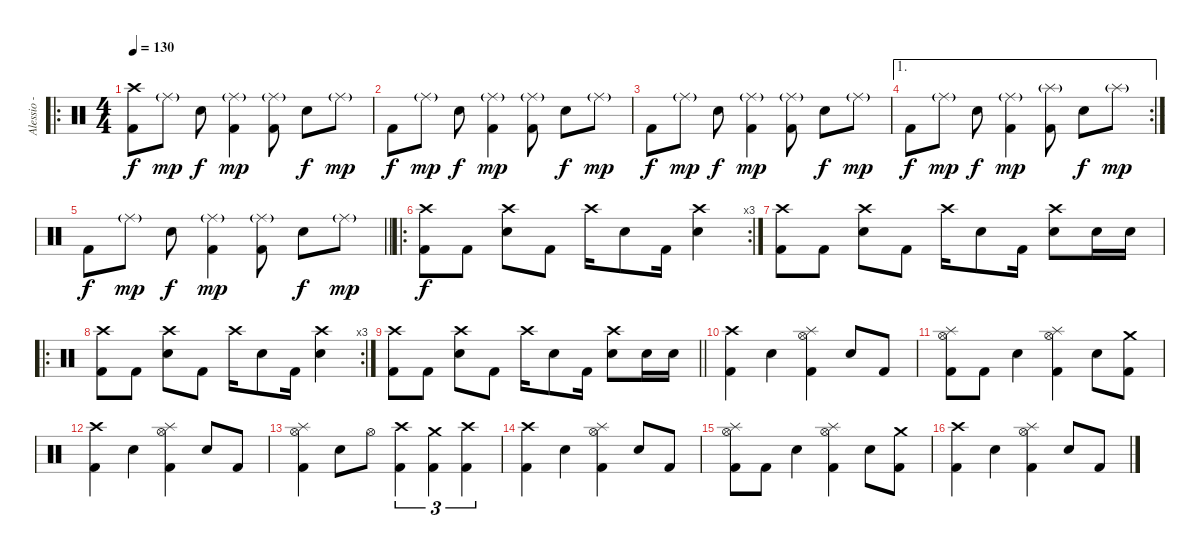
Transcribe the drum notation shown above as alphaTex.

\track ("Alessio - Drums" "Alessio - ") {instrument percussion}
\staff {score}
\articulation defaults
\ro
\ts (4 4)
\section ("" "")
\tempo 130
\clef neutral
\ks c
("Crash high (hit)" "Kick (hit) 2").8{dy f} "Ride (middle)"{g}.8{dy mp} "Electric Snare (hit)".8{dy f} ("Ride (middle)"{g} "Kick (hit) 2").4{dy mp} ("Ride (middle)"{g} "Kick (hit) 2").8 "Electric Snare (hit)".8{dy f} "Ride (middle)"{g}.8{dy mp} |
"Kick (hit) 2".8{dy f} "Ride (middle)"{g}.8{dy mp} "Electric Snare (hit)".8{dy f} ("Ride (middle)"{g} "Kick (hit) 2").4{dy mp} ("Ride (middle)"{g} "Kick (hit) 2").8 "Electric Snare (hit)".8{dy f} "Ride (middle)"{g}.8{dy mp} |
"Kick (hit) 2".8{dy f} "Ride (middle)"{g}.8{dy mp} "Electric Snare (hit)".8{dy f} ("Ride (middle)"{g} "Kick (hit) 2").4{dy mp} ("Ride (middle)"{g} "Kick (hit) 2").8 "Electric Snare (hit)".8{dy f} "Ride (middle)"{g}.8{dy mp} |
\ae 1
\rc 2 "Kick (hit) 2".8{dy f} "Ride (middle)"{g}.8{dy mp} "Electric Snare (hit)".8{dy f}
("Ride (middle)"{g} "Kick (hit) 2").4{dy mp} ("Splash (hit)"{g} "Kick (hit) 2").8 "Electric Snare (hit)".8{dy f} "Splash (hit)"{g}.8{dy mp} |
\barLineRight lightlight "Kick (hit) 2".8{dy f} "Ride (middle)"{g}.8{dy mp} "Electric Snare (hit)".8{dy f}
("Ride (middle)"{g} "Kick (hit) 2").4{dy mp} ("Ride (middle)"{g} "Kick (hit) 2").8 "Electric Snare (hit)".8{dy f} "Ride (middle)"{g}.8{dy mp} |
\ro
\rc 3
\section ("" "")
("Crash high (hit)" "Kick (hit) 2").8{dy f} "Kick (hit) 2".8 ("Crash high (hit)" "Electric Snare (hit)").8 "Kick (hit) 2".8 "Crash high (hit)".16 "Electric Snare (hit)".8 "Kick (hit) 2".16 ("Crash high (hit)" "Electric Snare (hit)").4 |
("Crash high (hit)" "Kick (hit) 2").8 "Kick (hit) 2".8 ("Crash high (hit)" "Electric Snare (hit)").8 "Kick (hit) 2".8 "Crash high (hit)".16 "Electric Snare (hit)".8 "Kick (hit) 2".16 ("Crash high (hit)" "Electric Snare (hit)").8 "Electric Snare (hit)".16 "Electric Snare (hit)".16 |
\ro
\rc 3
("Crash high (hit)" "Kick (hit) 2").8 "Kick (hit) 2".8 ("Crash high (hit)" "Electric Snare (hit)").8 "Kick (hit) 2".8 "Crash high (hit)".16 "Electric Snare (hit)".8 "Kick (hit) 2".16 ("Crash high (hit)" "Electric Snare (hit)").4 |
\barLineRight lightlight
("Crash high (hit)" "Kick (hit) 2").8 "Kick (hit) 2".8 ("Crash high (hit)" "Electric Snare (hit)").8 "Kick (hit) 2".8 "Crash high (hit)".16 "Electric Snare (hit)".8 "Kick (hit) 2".16 ("Crash high (hit)" "Electric Snare (hit)").8 "Electric Snare (hit)".16 "Electric Snare (hit)".16 |
\section ("" "")
("Crash high (hit)" "Kick (hit) 2").4 "Electric Snare (hit)".4 ("Splash (hit)" "Hi-Hat (open)" "Kick (hit) 2").4 "Electric Snare (hit)".8 "Kick (hit) 2".8 |
("Splash (hit)" "Hi-Hat (open)" "Kick (hit) 2").8 "Kick (hit) 2".8 "Electric Snare (hit)".4 ("Splash (hit)" "Hi-Hat (open)" "Kick (hit) 2").4 "Electric Snare (hit)".8 ("Crash medium (hit)" "Kick (hit) 2").8 |
("Crash high (hit)" "Kick (hit) 2").4 "Electric Snare (hit)".4 ("Splash (hit)" "Hi-Hat (open)" "Kick (hit) 2").4 "Electric Snare (hit)".8 "Kick (hit) 2".8 |
("Splash (hit)" "Hi-Hat (open)" "Kick (hit) 2").4 "Electric Snare (hit)".8 "Hi-Hat (open)".8 ("Crash high (hit)" "Kick (hit) 2").4{tu (3 2)} ("Crash medium (hit)" "Kick (hit) 2").4{tu (3 2)} ("Crash high (hit)" "Kick (hit) 2").4{tu (3 2)} |
("Crash high (hit)" "Kick (hit) 2").4 "Electric Snare (hit)".4 ("Splash (hit)" "Hi-Hat (open)" "Kick (hit) 2").4 "Electric Snare (hit)".8 "Kick (hit) 2".8 |
("Splash (hit)" "Hi-Hat (open)" "Kick (hit) 2").8 "Kick (hit) 2".8 "Electric Snare (hit)".4 ("Splash (hit)" "Hi-Hat (open)" "Kick (hit) 2").4 "Electric Snare (hit)".8 ("Crash medium (hit)" "Kick (hit) 2").8 |
("Crash high (hit)" "Kick (hit) 2").4 "Electric Snare (hit)".4 ("Splash (hit)" "Hi-Hat (open)" "Kick (hit) 2").4 "Electric Snare (hit)".8 "Kick (hit) 2".8
